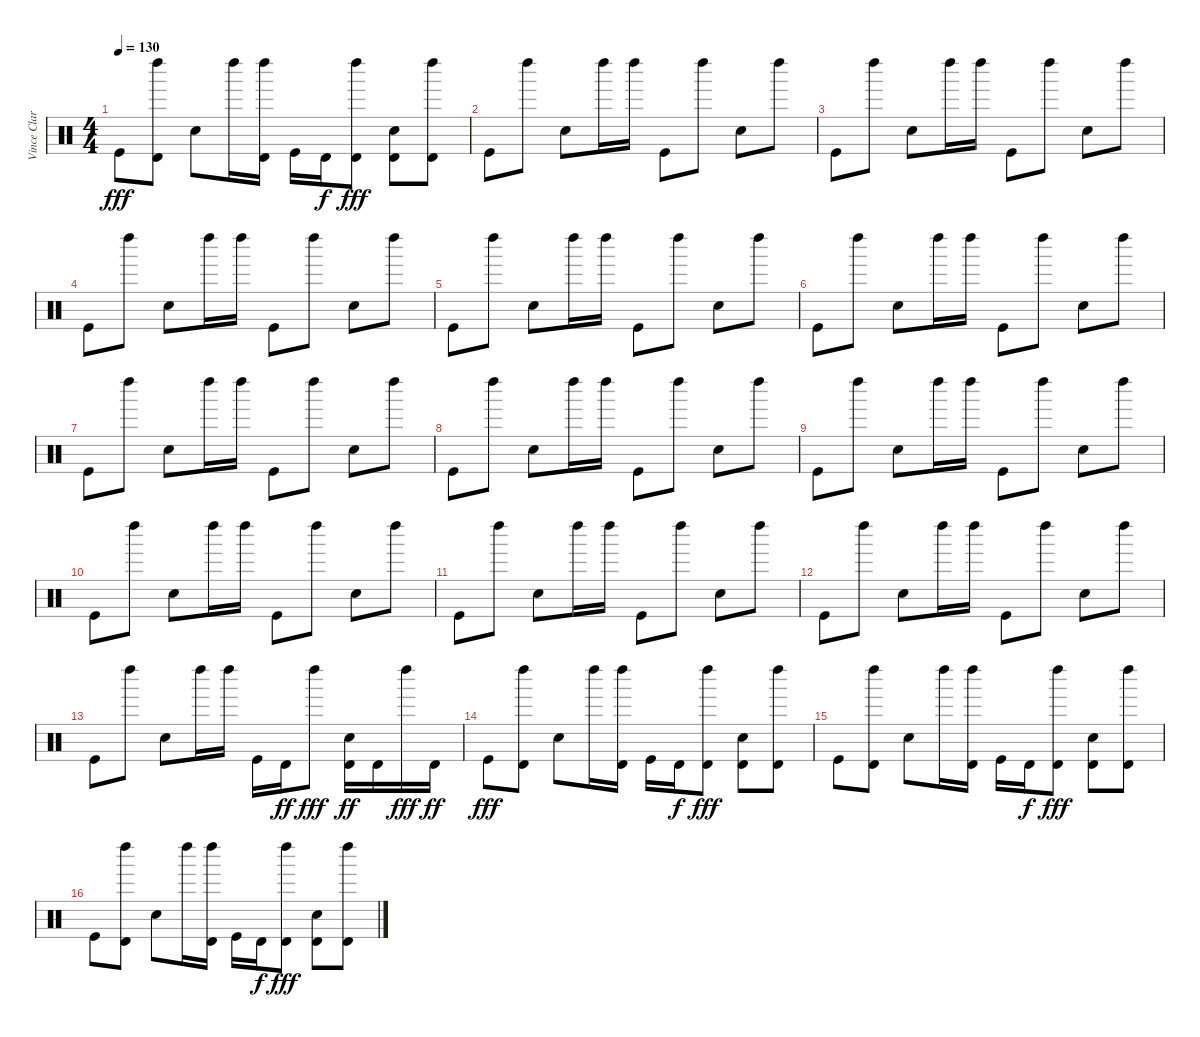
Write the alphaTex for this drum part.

\track ("Vince Clarke" "Vince Clar") {instrument percussion}
\staff {score}
\articulation defaults
\ts (4 4)
\tempo 130
\clef neutral
\ks c "Kick (hit)".8{dy fff}
("Left Maraca (hit)" "Timbale high (hit)").8 "Snare (hit) 2".8 "Left Maraca (hit)".16 ("Left Maraca (hit)" "Timbale high (hit)").16 "Kick (hit)".16 "Timbale high (hit)".16{dy f} ("Left Maraca (hit)" "Timbale high (hit)").8{dy fff} ("Snare (hit) 2" "Timbale high (hit)").8 ("Left Maraca (hit)" "Timbale high (hit)").8 |
"Kick (hit)".8 "Left Maraca (hit)".8 "Snare (hit) 2".8 "Left Maraca (hit)".16 "Left Maraca (hit)".16 "Kick (hit)".8 "Left Maraca (hit)".8 "Snare (hit) 2".8 "Left Maraca (hit)".8 |
"Kick (hit)".8 "Left Maraca (hit)".8 "Snare (hit) 2".8 "Left Maraca (hit)".16 "Left Maraca (hit)".16 "Kick (hit)".8 "Left Maraca (hit)".8 "Snare (hit) 2".8 "Left Maraca (hit)".8 |
"Kick (hit)".8 "Left Maraca (hit)".8 "Snare (hit) 2".8 "Left Maraca (hit)".16 "Left Maraca (hit)".16 "Kick (hit)".8 "Left Maraca (hit)".8 "Snare (hit) 2".8 "Left Maraca (hit)".8 |
"Kick (hit)".8 "Left Maraca (hit)".8 "Snare (hit) 2".8 "Left Maraca (hit)".16 "Left Maraca (hit)".16 "Kick (hit)".8 "Left Maraca (hit)".8 "Snare (hit) 2".8 "Left Maraca (hit)".8 |
"Kick (hit)".8 "Left Maraca (hit)".8 "Snare (hit) 2".8 "Left Maraca (hit)".16 "Left Maraca (hit)".16 "Kick (hit)".8 "Left Maraca (hit)".8 "Snare (hit) 2".8 "Left Maraca (hit)".8 |
"Kick (hit)".8 "Left Maraca (hit)".8 "Snare (hit) 2".8 "Left Maraca (hit)".16 "Left Maraca (hit)".16 "Kick (hit)".8 "Left Maraca (hit)".8 "Snare (hit) 2".8 "Left Maraca (hit)".8 |
"Kick (hit)".8 "Left Maraca (hit)".8 "Snare (hit) 2".8 "Left Maraca (hit)".16 "Left Maraca (hit)".16 "Kick (hit)".8 "Left Maraca (hit)".8 "Snare (hit) 2".8 "Left Maraca (hit)".8 |
"Kick (hit)".8 "Left Maraca (hit)".8 "Snare (hit) 2".8 "Left Maraca (hit)".16 "Left Maraca (hit)".16 "Kick (hit)".8 "Left Maraca (hit)".8 "Snare (hit) 2".8 "Left Maraca (hit)".8 |
"Kick (hit)".8 "Left Maraca (hit)".8 "Snare (hit) 2".8 "Left Maraca (hit)".16 "Left Maraca (hit)".16 "Kick (hit)".8 "Left Maraca (hit)".8 "Snare (hit) 2".8 "Left Maraca (hit)".8 |
"Kick (hit)".8 "Left Maraca (hit)".8 "Snare (hit) 2".8 "Left Maraca (hit)".16 "Left Maraca (hit)".16 "Kick (hit)".8 "Left Maraca (hit)".8 "Snare (hit) 2".8 "Left Maraca (hit)".8 |
"Kick (hit)".8 "Left Maraca (hit)".8 "Snare (hit) 2".8 "Left Maraca (hit)".16 "Left Maraca (hit)".16 "Kick (hit)".8 "Left Maraca (hit)".8 "Snare (hit) 2".8 "Left Maraca (hit)".8 |
"Kick (hit)".8 "Left Maraca (hit)".8 "Snare (hit) 2".8 "Left Maraca (hit)".16 "Left Maraca (hit)".16 "Kick (hit)".16 "Timbale high (hit)".16{dy ff} "Left Maraca (hit)".8{dy fff} ("Snare (hit) 2" "Timbale high (hit)").16{dy ff} "Timbale high (hit)".16 "Left Maraca (hit)".16{dy fff} "Timbale high (hit)".16{dy ff} |
"Kick (hit)".8{dy fff} ("Left Maraca (hit)" "Timbale high (hit)").8 "Snare (hit) 2".8 "Left Maraca (hit)".16 ("Left Maraca (hit)" "Timbale high (hit)").16 "Kick (hit)".16 "Timbale high (hit)".16{dy f} ("Left Maraca (hit)" "Timbale high (hit)").8{dy fff} ("Snare (hit) 2" "Timbale high (hit)").8 ("Left Maraca (hit)" "Timbale high (hit)").8 |
"Kick (hit)".8 ("Left Maraca (hit)" "Timbale high (hit)").8 "Snare (hit) 2".8 "Left Maraca (hit)".16 ("Left Maraca (hit)" "Timbale high (hit)").16 "Kick (hit)".16 "Timbale high (hit)".16{dy f} ("Left Maraca (hit)" "Timbale high (hit)").8{dy fff} ("Snare (hit) 2" "Timbale high (hit)").8 ("Left Maraca (hit)" "Timbale high (hit)").8 |
"Kick (hit)".8 ("Left Maraca (hit)" "Timbale high (hit)").8 "Snare (hit) 2".8 "Left Maraca (hit)".16 ("Left Maraca (hit)" "Timbale high (hit)").16 "Kick (hit)".16 "Timbale high (hit)".16{dy f} ("Left Maraca (hit)" "Timbale high (hit)").8{dy fff} ("Snare (hit) 2" "Timbale high (hit)").8 ("Left Maraca (hit)" "Timbale high (hit)").8
